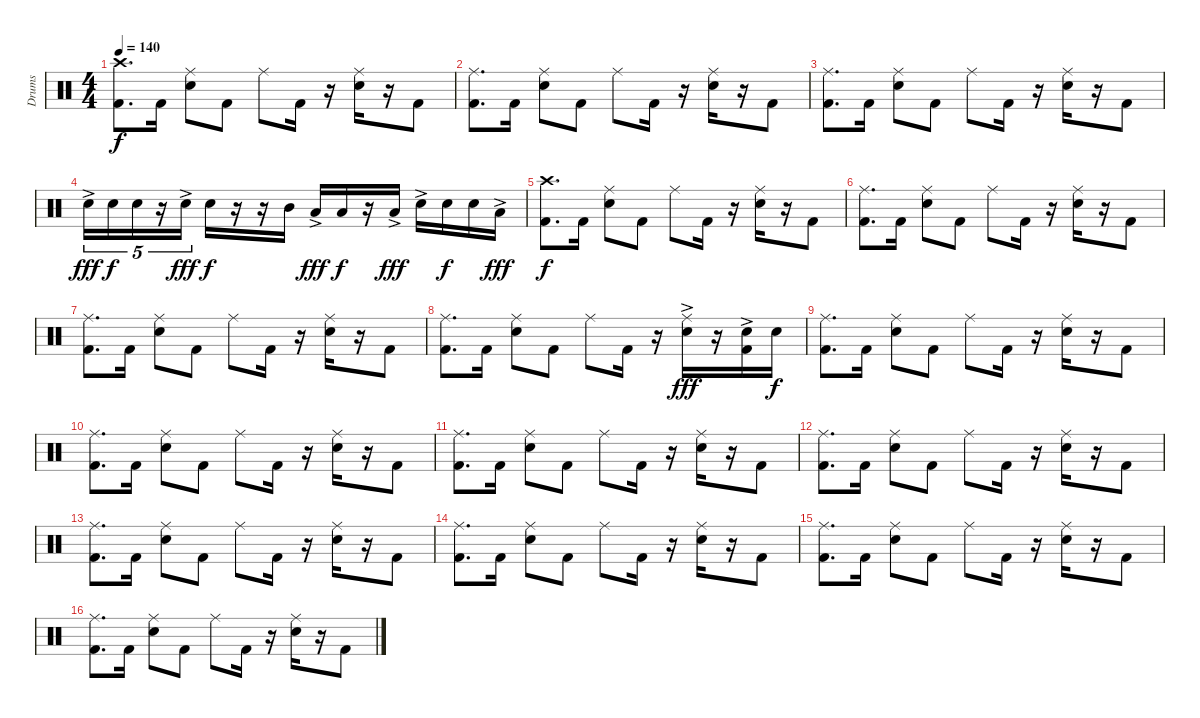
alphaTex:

\track ("Drums" "Drums") {instrument percussion}
\staff {score}
\articulation defaults
\ts (4 4)
\tempo 140
\clef neutral
\ks c
("Crash high (hit)" "Kick (hit) 2").8{d dy f} "Kick (hit) 2".16 ("Ride (middle)" "Snare (hit) 2").8 "Kick (hit) 2".8 "Ride (middle)".8 "Kick (hit) 2".16 r.16 ("Ride (middle)" "Snare (hit) 2").16 r.16 "Kick (hit) 2".8 |
("Ride (middle)" "Kick (hit) 2").8{d} "Kick (hit) 2".16 ("Ride (middle)" "Snare (hit) 2").8 "Kick (hit) 2".8 "Ride (middle)".8 "Kick (hit) 2".16 r.16 ("Ride (middle)" "Snare (hit) 2").16 r.16 "Kick (hit) 2".8 |
("Ride (middle)" "Kick (hit) 2").8{d} "Kick (hit) 2".16 ("Ride (middle)" "Snare (hit) 2").8 "Kick (hit) 2".8 "Ride (middle)".8 "Kick (hit) 2".16 r.16 ("Ride (middle)" "Snare (hit) 2").16 r.16 "Kick (hit) 2".8 |
"Snare (hit) 2"{ac}.16{tu (5 4) dy fff} "Snare (hit) 2".16{tu (5 4) dy f} "Snare (hit) 2".16{tu (5 4)} r.16{tu (5 4)} "Snare (hit) 2"{ac}.16{tu (5 4) dy fff} "Snare (hit) 2".16{dy f} r.16 r.16 "Mid Tom (hit)".16 "Low Tom (hit)"{ac}.16{dy fff} "Low Tom (hit)".16{dy f} r.16 "Low Tom (hit)"{ac}.16{dy fff} "Snare (hit) 2"{ac}.16 "Snare (hit) 2".16{dy f} "Snare (hit) 2".16 "Low Floor Tom (hit)"{ac}.16{dy fff} |
("Crash high (hit)" "Kick (hit) 2").8{d dy f} "Kick (hit) 2".16 ("Ride (middle)" "Snare (hit) 2").8 "Kick (hit) 2".8 "Ride (middle)".8 "Kick (hit) 2".16 r.16 ("Ride (middle)" "Snare (hit) 2").16 r.16 "Kick (hit) 2".8 |
("Ride (middle)" "Kick (hit) 2").8{d} "Kick (hit) 2".16 ("Ride (middle)" "Snare (hit) 2").8 "Kick (hit) 2".8 "Ride (middle)".8 "Kick (hit) 2".16 r.16 ("Ride (middle)" "Snare (hit) 2").16 r.16 "Kick (hit) 2".8 |
("Ride (middle)" "Kick (hit) 2").8{d} "Kick (hit) 2".16 ("Ride (middle)" "Snare (hit) 2").8 "Kick (hit) 2".8 "Ride (middle)".8 "Kick (hit) 2".16 r.16 ("Ride (middle)" "Snare (hit) 2").16 r.16 "Kick (hit) 2".8 |
("Ride (middle)" "Kick (hit) 2").8{d} "Kick (hit) 2".16 ("Ride (middle)" "Snare (hit) 2").8 "Kick (hit) 2".8 "Ride (middle)".8 "Kick (hit) 2".16 r.16 ("Ride (middle)" "Snare (hit) 2"{ac}).16{dy fff} r.16 ("Snare (hit) 2"{ac} "Kick (hit) 2").16 "Snare (hit) 2".16{dy f} |
("Ride (middle)" "Kick (hit) 2").8{d} "Kick (hit) 2".16 ("Ride (middle)" "Snare (hit) 2").8 "Kick (hit) 2".8 "Ride (middle)".8 "Kick (hit) 2".16 r.16 ("Ride (middle)" "Snare (hit) 2").16 r.16 "Kick (hit) 2".8 |
("Ride (middle)" "Kick (hit) 2").8{d} "Kick (hit) 2".16 ("Ride (middle)" "Snare (hit) 2").8 "Kick (hit) 2".8 "Ride (middle)".8 "Kick (hit) 2".16 r.16 ("Ride (middle)" "Snare (hit) 2").16 r.16 "Kick (hit) 2".8 |
("Ride (middle)" "Kick (hit) 2").8{d} "Kick (hit) 2".16 ("Ride (middle)" "Snare (hit) 2").8 "Kick (hit) 2".8 "Ride (middle)".8 "Kick (hit) 2".16 r.16 ("Ride (middle)" "Snare (hit) 2").16 r.16 "Kick (hit) 2".8 |
("Ride (middle)" "Kick (hit) 2").8{d} "Kick (hit) 2".16 ("Ride (middle)" "Snare (hit) 2").8 "Kick (hit) 2".8 "Ride (middle)".8 "Kick (hit) 2".16 r.16 ("Ride (middle)" "Snare (hit) 2").16 r.16 "Kick (hit) 2".8 |
("Ride (middle)" "Kick (hit) 2").8{d} "Kick (hit) 2".16 ("Ride (middle)" "Snare (hit) 2").8 "Kick (hit) 2".8 "Ride (middle)".8 "Kick (hit) 2".16 r.16 ("Ride (middle)" "Snare (hit) 2").16 r.16 "Kick (hit) 2".8 |
("Ride (middle)" "Kick (hit) 2").8{d} "Kick (hit) 2".16 ("Ride (middle)" "Snare (hit) 2").8 "Kick (hit) 2".8 "Ride (middle)".8 "Kick (hit) 2".16 r.16 ("Ride (middle)" "Snare (hit) 2").16 r.16 "Kick (hit) 2".8 |
("Ride (middle)" "Kick (hit) 2").8{d} "Kick (hit) 2".16 ("Ride (middle)" "Snare (hit) 2").8 "Kick (hit) 2".8 "Ride (middle)".8 "Kick (hit) 2".16 r.16 ("Ride (middle)" "Snare (hit) 2").16 r.16 "Kick (hit) 2".8 |
("Ride (middle)" "Kick (hit) 2").8{d} "Kick (hit) 2".16 ("Ride (middle)" "Snare (hit) 2").8 "Kick (hit) 2".8 "Ride (middle)".8 "Kick (hit) 2".16 r.16 ("Ride (middle)" "Snare (hit) 2").16 r.16 "Kick (hit) 2".8
